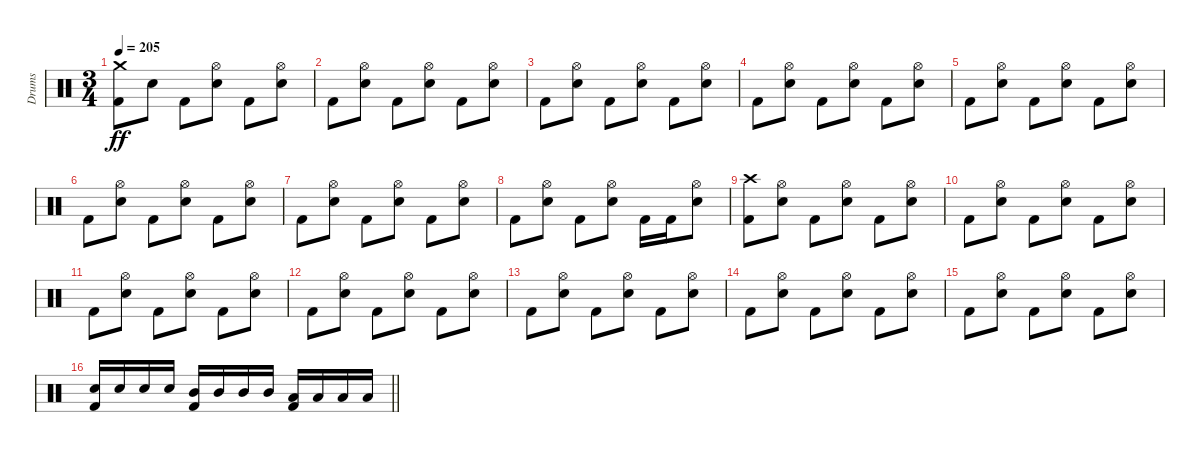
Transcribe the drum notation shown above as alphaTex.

\track ("Drums" "Drums") {instrument percussion}
\staff {score}
\articulation defaults
\ts (3 4)
\tempo 205
\clef neutral
\ks c
("Crash medium (hit)" "Kick (hit) 2").8{dy ff} "Snare (hit) 2".8 "Kick (hit) 2".8 ("Hi-Hat (open)" "Snare (hit) 2").8 "Kick (hit) 2".8 ("Hi-Hat (open)" "Snare (hit) 2").8 |
"Kick (hit) 2".8 ("Hi-Hat (open)" "Snare (hit) 2").8 "Kick (hit) 2".8 ("Hi-Hat (open)" "Snare (hit) 2").8 "Kick (hit) 2".8 ("Hi-Hat (open)" "Snare (hit) 2").8 |
"Kick (hit) 2".8 ("Hi-Hat (open)" "Snare (hit) 2").8 "Kick (hit) 2".8 ("Hi-Hat (open)" "Snare (hit) 2").8 "Kick (hit) 2".8 ("Hi-Hat (open)" "Snare (hit) 2").8 |
"Kick (hit) 2".8 ("Hi-Hat (open)" "Snare (hit) 2").8 "Kick (hit) 2".8 ("Hi-Hat (open)" "Snare (hit) 2").8 "Kick (hit) 2".8 ("Hi-Hat (open)" "Snare (hit) 2").8 |
"Kick (hit) 2".8 ("Hi-Hat (open)" "Snare (hit) 2").8 "Kick (hit) 2".8 ("Hi-Hat (open)" "Snare (hit) 2").8 "Kick (hit) 2".8 ("Hi-Hat (open)" "Snare (hit) 2").8 |
"Kick (hit) 2".8 ("Hi-Hat (open)" "Snare (hit) 2").8 "Kick (hit) 2".8 ("Hi-Hat (open)" "Snare (hit) 2").8 "Kick (hit) 2".8 ("Hi-Hat (open)" "Snare (hit) 2").8 |
"Kick (hit) 2".8 ("Hi-Hat (open)" "Snare (hit) 2").8 "Kick (hit) 2".8 ("Hi-Hat (open)" "Snare (hit) 2").8 "Kick (hit) 2".8 ("Hi-Hat (open)" "Snare (hit) 2").8 |
"Kick (hit) 2".8 ("Hi-Hat (open)" "Snare (hit) 2").8 "Kick (hit) 2".8 ("Hi-Hat (open)" "Snare (hit) 2").8 "Kick (hit) 2".16 "Kick (hit) 2".16 ("Hi-Hat (open)" "Snare (hit) 2").8 |
("Crash high (hit)" "Kick (hit) 2").8 ("Hi-Hat (open)" "Snare (hit) 2").8 "Kick (hit) 2".8 ("Hi-Hat (open)" "Snare (hit) 2").8 "Kick (hit) 2".8 ("Hi-Hat (open)" "Snare (hit) 2").8 |
"Kick (hit) 2".8 ("Hi-Hat (open)" "Snare (hit) 2").8 "Kick (hit) 2".8 ("Hi-Hat (open)" "Snare (hit) 2").8 "Kick (hit) 2".8 ("Hi-Hat (open)" "Snare (hit) 2").8 |
"Kick (hit) 2".8 ("Hi-Hat (open)" "Snare (hit) 2").8 "Kick (hit) 2".8 ("Hi-Hat (open)" "Snare (hit) 2").8 "Kick (hit) 2".8 ("Hi-Hat (open)" "Snare (hit) 2").8 |
"Kick (hit) 2".8 ("Hi-Hat (open)" "Snare (hit) 2").8 "Kick (hit) 2".8 ("Hi-Hat (open)" "Snare (hit) 2").8 "Kick (hit) 2".8 ("Hi-Hat (open)" "Snare (hit) 2").8 |
"Kick (hit) 2".8 ("Hi-Hat (open)" "Snare (hit) 2").8 "Kick (hit) 2".8 ("Hi-Hat (open)" "Snare (hit) 2").8 "Kick (hit) 2".8 ("Hi-Hat (open)" "Snare (hit) 2").8 |
"Kick (hit) 2".8 ("Hi-Hat (open)" "Snare (hit) 2").8 "Kick (hit) 2".8 ("Hi-Hat (open)" "Snare (hit) 2").8 "Kick (hit) 2".8 ("Hi-Hat (open)" "Snare (hit) 2").8 |
"Kick (hit) 2".8 ("Hi-Hat (open)" "Snare (hit) 2").8 "Kick (hit) 2".8 ("Hi-Hat (open)" "Snare (hit) 2").8 "Kick (hit) 2".8 ("Hi-Hat (open)" "Snare (hit) 2").8 |
\barLineRight lightlight
("Snare (hit) 2" "Kick (hit) 2").16 "Snare (hit) 2".16 "Snare (hit) 2".16 "Snare (hit) 2".16 ("Mid Tom (hit)" "Kick (hit) 2").16 "Mid Tom (hit)".16 "Mid Tom (hit)".16 "Mid Tom (hit)".16 ("Low Tom (hit)" "Kick (hit) 2").16 "Low Tom (hit)".16 "Low Tom (hit)".16 "Low Tom (hit)".16
